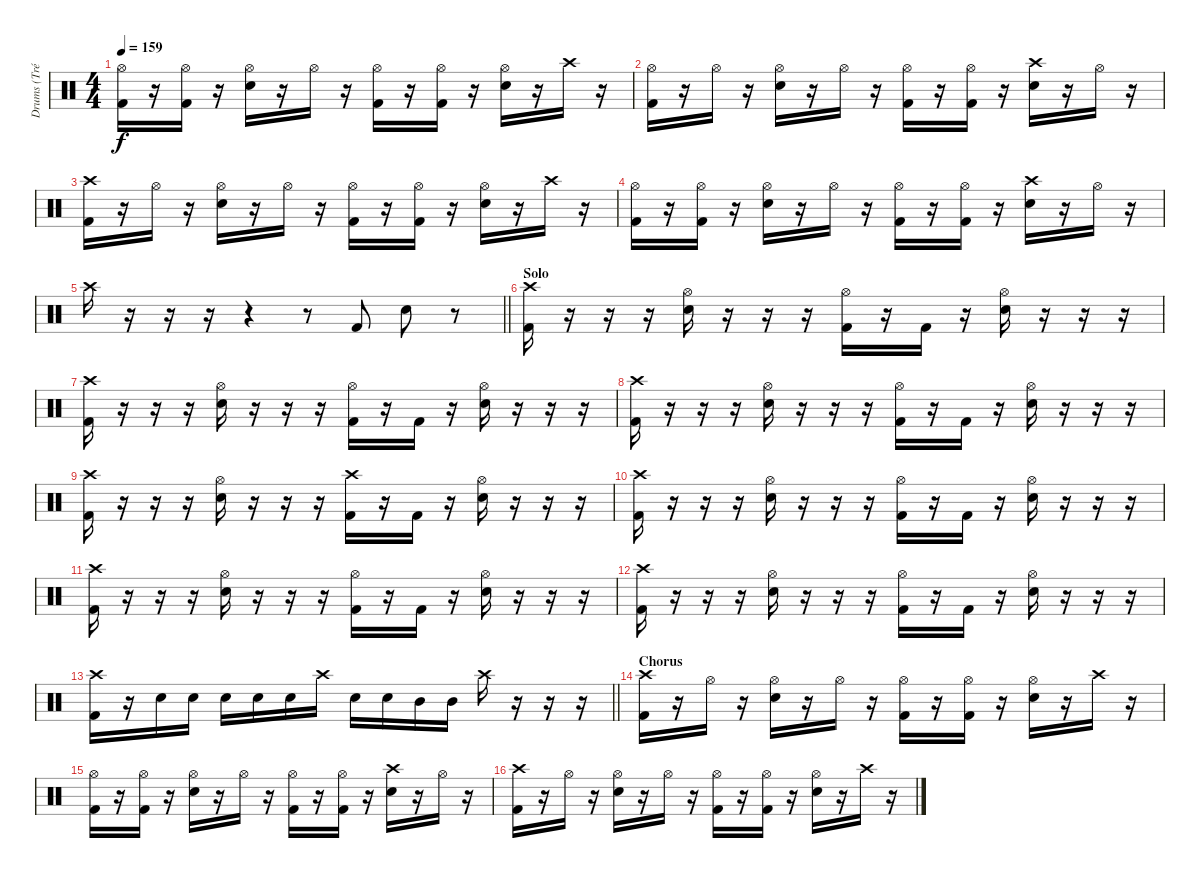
\track ("Drums (Tré Cool)" "Drums (Tré") {instrument percussion}
\staff {score}
\articulation defaults
\ts (4 4)
\tempo 159
\clef neutral
\ks c
("Hi-Hat (open)" "Kick (hit) 2").16{dy f} r.16 ("Hi-Hat (open)" "Kick (hit) 2").16 r.16 ("Hi-Hat (open)" "Electric Snare (hit)").16 r.16 "Hi-Hat (open)".16 r.16 ("Hi-Hat (open)" "Kick (hit) 2").16 r.16 ("Hi-Hat (open)" "Kick (hit) 2").16 r.16 ("Hi-Hat (open)" "Electric Snare (hit)").16 r.16 "Crash high (hit)".16 r.16 |
("Hi-Hat (open)" "Kick (hit) 2").16 r.16 "Hi-Hat (open)".16 r.16 ("Hi-Hat (open)" "Electric Snare (hit)").16 r.16 "Hi-Hat (open)".16 r.16 ("Hi-Hat (open)" "Kick (hit) 2").16 r.16 ("Hi-Hat (open)" "Kick (hit) 2").16 r.16 ("Crash high (hit)" "Electric Snare (hit)").16 r.16 "Hi-Hat (open)".16 r.16 |
("Crash high (hit)" "Kick (hit) 2").16 r.16 "Hi-Hat (open)".16 r.16 ("Hi-Hat (open)" "Electric Snare (hit)").16 r.16 "Hi-Hat (open)".16 r.16 ("Hi-Hat (open)" "Kick (hit) 2").16 r.16 ("Hi-Hat (open)" "Kick (hit) 2").16 r.16 ("Hi-Hat (open)" "Electric Snare (hit)").16 r.16 "Crash high (hit)".16 r.16 |
("Hi-Hat (open)" "Kick (hit) 2").16 r.16 ("Hi-Hat (open)" "Kick (hit) 2").16 r.16 ("Hi-Hat (open)" "Electric Snare (hit)").16 r.16 "Hi-Hat (open)".16 r.16 ("Hi-Hat (open)" "Kick (hit) 2").16 r.16 ("Hi-Hat (open)" "Kick (hit) 2").16 r.16 ("Crash high (hit)" "Electric Snare (hit)").16 r.16 "Hi-Hat (open)".16 r.16 |
\barLineRight lightlight "Crash high (hit)".16
r.16 r.16 r.16 r.4 r.8 "Kick (hit) 2".8 "Electric Snare (hit)".8 r.8 |
\section ("" "Solo")
("Crash high (hit)" "Kick (hit) 2").16 r.16 r.16 r.16 ("Hi-Hat (open)" "Electric Snare (hit)").16 r.16 r.16 r.16 ("Hi-Hat (open)" "Kick (hit) 2").16 r.16 "Kick (hit) 2".16 r.16 ("Hi-Hat (open)" "Electric Snare (hit)").16 r.16 r.16 r.16 |
("Crash high (hit)" "Kick (hit) 2").16 r.16 r.16 r.16 ("Hi-Hat (open)" "Electric Snare (hit)").16 r.16 r.16 r.16 ("Hi-Hat (open)" "Kick (hit) 2").16 r.16 "Kick (hit) 2".16 r.16 ("Hi-Hat (open)" "Electric Snare (hit)").16 r.16 r.16 r.16 |
("Crash high (hit)" "Kick (hit) 2").16 r.16 r.16 r.16 ("Hi-Hat (open)" "Electric Snare (hit)").16 r.16 r.16 r.16 ("Hi-Hat (open)" "Kick (hit) 2").16 r.16 "Kick (hit) 2".16 r.16 ("Hi-Hat (open)" "Electric Snare (hit)").16 r.16 r.16 r.16 |
("Crash high (hit)" "Kick (hit) 2").16 r.16 r.16 r.16 ("Hi-Hat (open)" "Electric Snare (hit)").16 r.16 r.16 r.16 ("Crash high (hit)" "Kick (hit) 2").16 r.16 "Kick (hit) 2".16 r.16 ("Hi-Hat (open)" "Electric Snare (hit)").16 r.16 r.16 r.16 |
("Crash high (hit)" "Kick (hit) 2").16 r.16 r.16 r.16 ("Hi-Hat (open)" "Electric Snare (hit)").16 r.16 r.16 r.16 ("Hi-Hat (open)" "Kick (hit) 2").16 r.16 "Kick (hit) 2".16 r.16 ("Hi-Hat (open)" "Electric Snare (hit)").16 r.16 r.16 r.16 |
("Crash high (hit)" "Kick (hit) 2").16 r.16 r.16 r.16 ("Hi-Hat (open)" "Electric Snare (hit)").16 r.16 r.16 r.16 ("Hi-Hat (open)" "Kick (hit) 2").16 r.16 "Kick (hit) 2".16 r.16 ("Hi-Hat (open)" "Electric Snare (hit)").16 r.16 r.16 r.16 |
("Crash high (hit)" "Kick (hit) 2").16 r.16 r.16 r.16 ("Hi-Hat (open)" "Electric Snare (hit)").16 r.16 r.16 r.16 ("Hi-Hat (open)" "Kick (hit) 2").16 r.16 "Kick (hit) 2".16 r.16 ("Hi-Hat (open)" "Electric Snare (hit)").16 r.16 r.16 r.16 |
\barLineRight lightlight
("Crash high (hit)" "Kick (hit) 2").16 r.16 "Electric Snare (hit)".16 "Electric Snare (hit)".16 "Electric Snare (hit)".16 "Electric Snare (hit)".16 "Electric Snare (hit)".16 "Crash high (hit)".16 "Electric Snare (hit)".16 "Electric Snare (hit)".16 "Mid Tom (hit)".16 "Mid Tom (hit)".16 "Crash high (hit)".16 r.16 r.16 r.16 |
\section ("" "Chorus")
("Crash high (hit)" "Kick (hit) 2").16 r.16 "Hi-Hat (open)".16 r.16 ("Hi-Hat (open)" "Electric Snare (hit)").16 r.16 "Hi-Hat (open)".16 r.16 ("Hi-Hat (open)" "Kick (hit) 2").16 r.16 ("Hi-Hat (open)" "Kick (hit) 2").16 r.16 ("Hi-Hat (open)" "Electric Snare (hit)").16 r.16 "Crash high (hit)".16 r.16 |
("Hi-Hat (open)" "Kick (hit) 2").16 r.16 ("Hi-Hat (open)" "Kick (hit) 2").16 r.16 ("Hi-Hat (open)" "Electric Snare (hit)").16 r.16 "Hi-Hat (open)".16 r.16 ("Hi-Hat (open)" "Kick (hit) 2").16 r.16 ("Hi-Hat (open)" "Kick (hit) 2").16 r.16 ("Crash high (hit)" "Electric Snare (hit)").16 r.16 "Hi-Hat (open)".16 r.16 |
("Crash high (hit)" "Kick (hit) 2").16 r.16 "Hi-Hat (open)".16 r.16 ("Hi-Hat (open)" "Electric Snare (hit)").16 r.16 "Hi-Hat (open)".16 r.16 ("Hi-Hat (open)" "Kick (hit) 2").16 r.16 ("Hi-Hat (open)" "Kick (hit) 2").16 r.16 ("Hi-Hat (open)" "Electric Snare (hit)").16 r.16 "Crash high (hit)".16 r.16
